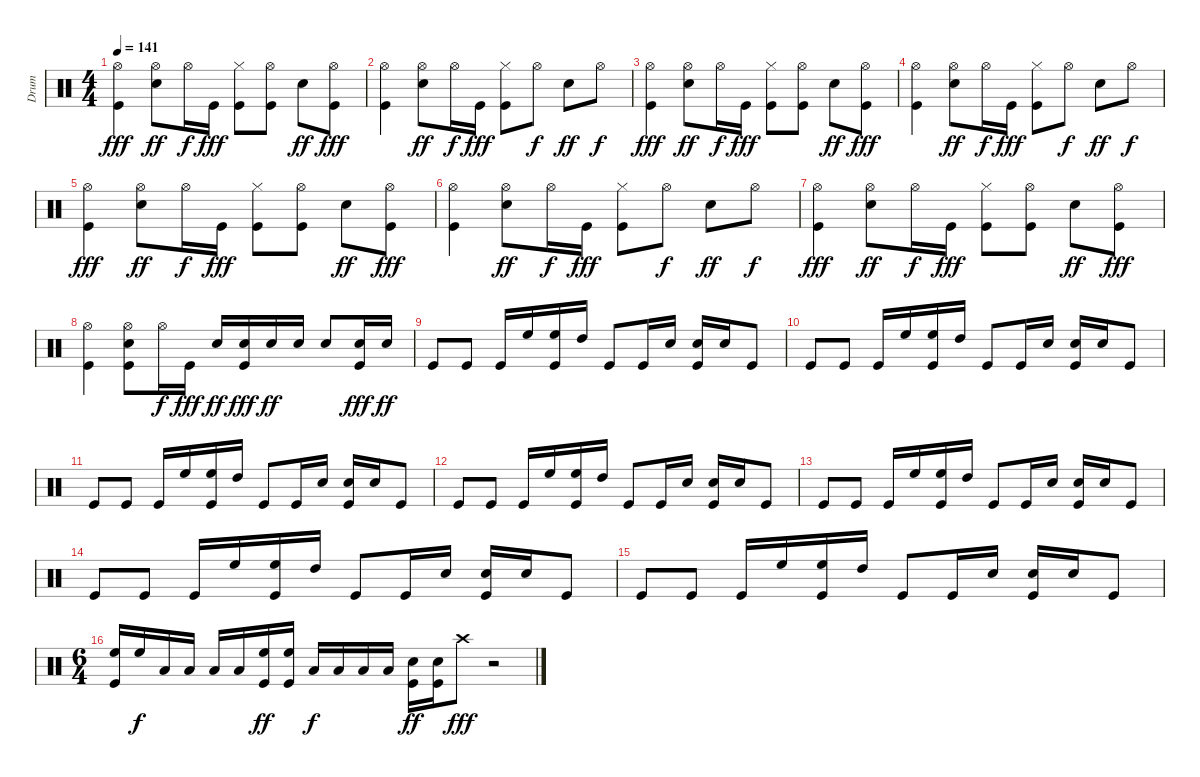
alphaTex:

\track ("Drum" "Drum") {instrument percussion}
\staff {score}
\articulation defaults
\ts (4 4)
\tempo 141
\clef neutral
\ks c
("Hi-Hat (open)" "Kick (hit)").4{dy fff} ("Hi-Hat (open)" "Electric Snare (hit)").8{dy ff} "Hi-Hat (open)".16{dy f} "Kick (hit)".16{dy fff} ("Hi-Hat (closed)" "Kick (hit)").8 ("Hi-Hat (open)" "Kick (hit)").8 "Electric Snare (hit)".8{dy ff} ("Hi-Hat (open)" "Kick (hit)").8{dy fff} |
("Hi-Hat (open)" "Kick (hit)").4 ("Hi-Hat (open)" "Electric Snare (hit)").8{dy ff} "Hi-Hat (open)".16{dy f} "Kick (hit)".16{dy fff} ("Hi-Hat (closed)" "Kick (hit)").8 "Hi-Hat (open)".8{dy f} "Electric Snare (hit)".8{dy ff} "Hi-Hat (open)".8{dy f} |
("Hi-Hat (open)" "Kick (hit)").4{dy fff} ("Hi-Hat (open)" "Electric Snare (hit)").8{dy ff} "Hi-Hat (open)".16{dy f} "Kick (hit)".16{dy fff} ("Hi-Hat (closed)" "Kick (hit)").8 ("Hi-Hat (open)" "Kick (hit)").8 "Electric Snare (hit)".8{dy ff} ("Hi-Hat (open)" "Kick (hit)").8{dy fff} |
("Hi-Hat (open)" "Kick (hit)").4 ("Hi-Hat (open)" "Electric Snare (hit)").8{dy ff} "Hi-Hat (open)".16{dy f} "Kick (hit)".16{dy fff} ("Hi-Hat (closed)" "Kick (hit)").8 "Hi-Hat (open)".8{dy f} "Electric Snare (hit)".8{dy ff} "Hi-Hat (open)".8{dy f} |
("Hi-Hat (open)" "Kick (hit)").4{dy fff} ("Hi-Hat (open)" "Electric Snare (hit)").8{dy ff} "Hi-Hat (open)".16{dy f} "Kick (hit)".16{dy fff} ("Hi-Hat (closed)" "Kick (hit)").8 ("Hi-Hat (open)" "Kick (hit)").8 "Electric Snare (hit)".8{dy ff} ("Hi-Hat (open)" "Kick (hit)").8{dy fff} |
("Hi-Hat (open)" "Kick (hit)").4 ("Hi-Hat (open)" "Electric Snare (hit)").8{dy ff} "Hi-Hat (open)".16{dy f} "Kick (hit)".16{dy fff} ("Hi-Hat (closed)" "Kick (hit)").8 "Hi-Hat (open)".8{dy f} "Electric Snare (hit)".8{dy ff} "Hi-Hat (open)".8{dy f} |
("Hi-Hat (open)" "Kick (hit)").4{dy fff} ("Hi-Hat (open)" "Electric Snare (hit)").8{dy ff} "Hi-Hat (open)".16{dy f} "Kick (hit)".16{dy fff} ("Hi-Hat (closed)" "Kick (hit)").8 ("Hi-Hat (open)" "Kick (hit)").8 "Electric Snare (hit)".8{dy ff} ("Hi-Hat (open)" "Kick (hit)").8{dy fff} |
("Hi-Hat (open)" "Kick (hit)").4 ("Hi-Hat (open)" "Electric Snare (hit)" "Kick (hit)").8 "Hi-Hat (open)".16{dy f} "Kick (hit)".16{dy fff} "Electric Snare (hit)".16{dy ff} ("Electric Snare (hit)" "Kick (hit)").16{dy fff} "Electric Snare (hit)".16{dy ff} "Electric Snare (hit)".16 "Electric Snare (hit)".8 ("Electric Snare (hit)" "Kick (hit)").16{dy fff} "Electric Snare (hit)".16{dy ff} |
"Kick (hit)".8 "Kick (hit)".8 "Kick (hit)".16 "High Floor Tom (hit)".16 ("High Floor Tom (hit)" "Kick (hit)").16 "High Tom (hit)".16 "Kick (hit)".8 "Kick (hit)".16 "Electric Snare (hit)".16 ("Electric Snare (hit)" "Kick (hit)").16 "Electric Snare (hit)".16 "Kick (hit)".8 |
"Kick (hit)".8 "Kick (hit)".8 "Kick (hit)".16 "High Floor Tom (hit)".16 ("High Floor Tom (hit)" "Kick (hit)").16 "High Tom (hit)".16 "Kick (hit)".8 "Kick (hit)".16 "Electric Snare (hit)".16 ("Electric Snare (hit)" "Kick (hit)").16 "Electric Snare (hit)".16 "Kick (hit)".8 |
"Kick (hit)".8 "Kick (hit)".8 "Kick (hit)".16 "High Floor Tom (hit)".16 ("High Floor Tom (hit)" "Kick (hit)").16 "High Tom (hit)".16 "Kick (hit)".8 "Kick (hit)".16 "Electric Snare (hit)".16 ("Electric Snare (hit)" "Kick (hit)").16 "Electric Snare (hit)".16 "Kick (hit)".8 |
"Kick (hit)".8 "Kick (hit)".8 "Kick (hit)".16 "High Floor Tom (hit)".16 ("High Floor Tom (hit)" "Kick (hit)").16 "High Tom (hit)".16 "Kick (hit)".8 "Kick (hit)".16 "Electric Snare (hit)".16 ("Electric Snare (hit)" "Kick (hit)").16 "Electric Snare (hit)".16 "Kick (hit)".8 |
"Kick (hit)".8 "Kick (hit)".8 "Kick (hit)".16 "High Floor Tom (hit)".16 ("High Floor Tom (hit)" "Kick (hit)").16 "High Tom (hit)".16 "Kick (hit)".8 "Kick (hit)".16 "Electric Snare (hit)".16 ("Electric Snare (hit)" "Kick (hit)").16 "Electric Snare (hit)".16 "Kick (hit)".8 |
"Kick (hit)".8 "Kick (hit)".8 "Kick (hit)".16 "High Floor Tom (hit)".16 ("High Floor Tom (hit)" "Kick (hit)").16 "High Tom (hit)".16 "Kick (hit)".8 "Kick (hit)".16 "Electric Snare (hit)".16 ("Electric Snare (hit)" "Kick (hit)").16 "Electric Snare (hit)".16 "Kick (hit)".8 |
"Kick (hit)".8 "Kick (hit)".8 "Kick (hit)".16 "High Floor Tom (hit)".16 ("High Floor Tom (hit)" "Kick (hit)").16 "High Tom (hit)".16 "Kick (hit)".8 "Kick (hit)".16 "Electric Snare (hit)".16 ("Electric Snare (hit)" "Kick (hit)").16 "Electric Snare (hit)".16 "Kick (hit)".8 |
\ts (6 4)
("High Floor Tom (hit)" "Kick (hit)").16 "High Floor Tom (hit)".16{dy f} "Low Tom (hit)".16 "Low Tom (hit)".16 "Low Floor Tom (hit)".16 "Low Floor Tom (hit)".16 ("High Floor Tom (hit)" "Kick (hit)").16{dy ff} ("High Floor Tom (hit)" "Kick (hit)").16 "Low Tom (hit)".16{dy f} "Low Tom (hit)".16 "Low Floor Tom (hit)".16 "Low Floor Tom (hit)".16 ("Electric Snare (hit)" "Kick (hit)").16{dy ff} ("Electric Snare (hit)" "Kick (hit)").16 "Crash high (hit)".8{dy fff} r.2
